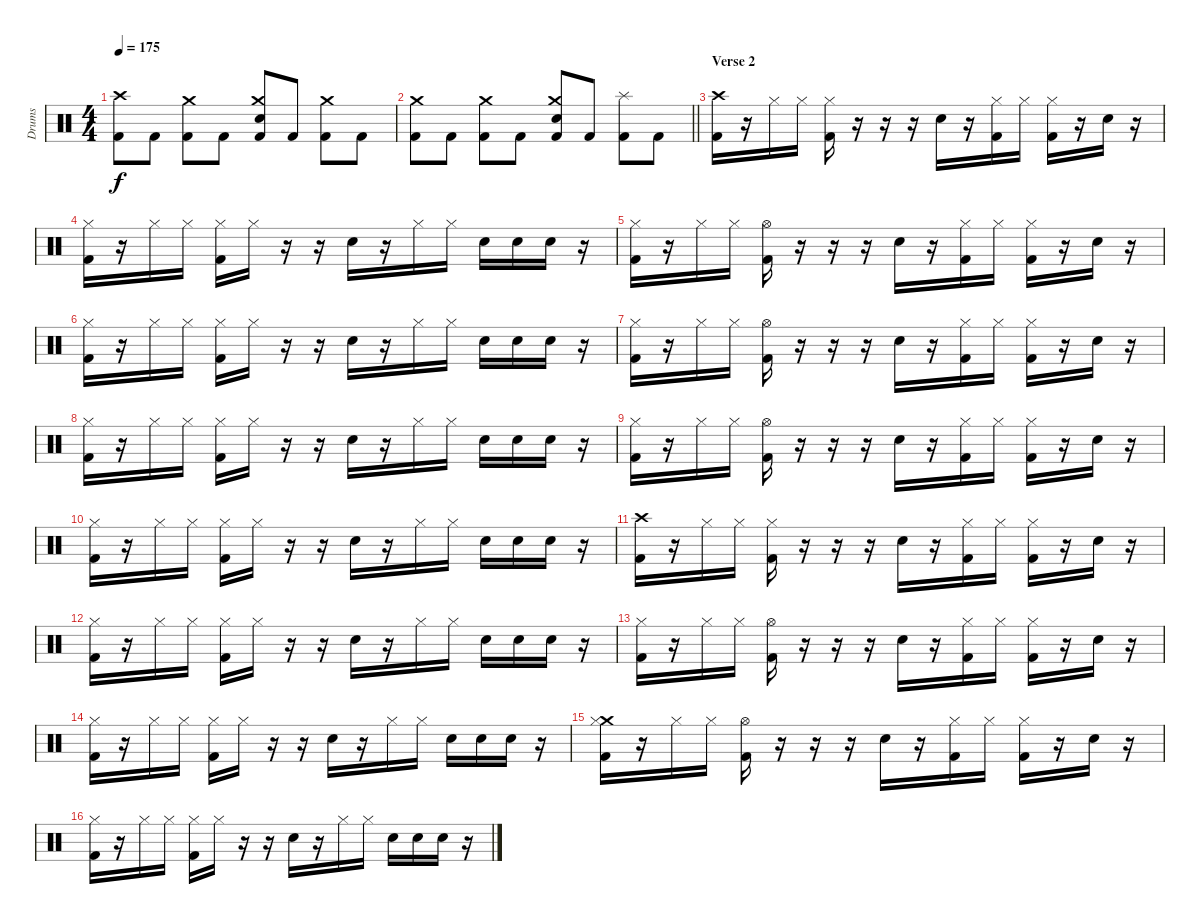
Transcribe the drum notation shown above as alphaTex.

\track ("Drums" "Drums") {instrument percussion}
\staff {score}
\articulation defaults
\ts (4 4)
\tempo 175
\clef neutral
\ks c
("Crash high (hit)" "Kick (hit) 2").8{dy f} "Kick (hit) 2".8 ("Crash medium (hit)" "Kick (hit) 2").8 "Kick (hit) 2".8 ("Crash medium (hit)" "Electric Snare (hit)" "Kick (hit) 2").8 "Kick (hit) 2".8 ("Crash medium (hit)" "Kick (hit) 2").8 "Kick (hit) 2".8 |
\barLineRight lightlight
("Crash medium (hit)" "Kick (hit) 2").8 "Kick (hit) 2".8 ("Crash medium (hit)" "Kick (hit) 2").8 "Kick (hit) 2".8 ("Crash medium (hit)" "Electric Snare (hit)" "Kick (hit) 2").8 "Kick (hit) 2".8 ("Splash (hit)" "Kick (hit) 2").8 "Kick (hit) 2".8 |
\section ("" "Verse 2")
("Crash high (hit)" "Kick (hit) 2").16 r.16 "Hi-Hat (closed)".16 "Hi-Hat (closed)".16 ("Hi-Hat (closed)" "Kick (hit) 2").16 r.16 r.16 r.16 "Electric Snare (hit)".16 r.16 ("Hi-Hat (closed)" "Kick (hit) 2").16 "Hi-Hat (closed)".16 ("Hi-Hat (closed)" "Kick (hit) 2").16 r.16 "Electric Snare (hit)".16 r.16 |
("Hi-Hat (closed)" "Kick (hit) 2").16 r.16 "Hi-Hat (closed)".16 "Hi-Hat (closed)".16 ("Hi-Hat (closed)" "Kick (hit) 2").16 "Hi-Hat (closed)".16 r.16 r.16 "Electric Snare (hit)".16 r.16 "Hi-Hat (closed)".16 "Hi-Hat (closed)".16 "Electric Snare (hit)".16 "Electric Snare (hit)".16 "Electric Snare (hit)".16 r.16 |
("Hi-Hat (closed)" "Kick (hit) 2").16 r.16 "Hi-Hat (closed)".16 "Hi-Hat (closed)".16 ("Hi-Hat (open)" "Kick (hit) 2").16 r.16 r.16 r.16 "Electric Snare (hit)".16 r.16 ("Hi-Hat (closed)" "Kick (hit) 2").16 "Hi-Hat (closed)".16 ("Hi-Hat (closed)" "Kick (hit) 2").16 r.16 "Electric Snare (hit)".16 r.16 |
("Hi-Hat (closed)" "Kick (hit) 2").16 r.16 "Hi-Hat (closed)".16 "Hi-Hat (closed)".16 ("Hi-Hat (closed)" "Kick (hit) 2").16 "Hi-Hat (closed)".16 r.16 r.16 "Electric Snare (hit)".16 r.16 "Hi-Hat (closed)".16 "Hi-Hat (closed)".16 "Electric Snare (hit)".16 "Electric Snare (hit)".16 "Electric Snare (hit)".16 r.16 |
("Hi-Hat (closed)" "Kick (hit) 2").16 r.16 "Hi-Hat (closed)".16 "Hi-Hat (closed)".16 ("Hi-Hat (open)" "Kick (hit) 2").16 r.16 r.16 r.16 "Electric Snare (hit)".16 r.16 ("Hi-Hat (closed)" "Kick (hit) 2").16 "Hi-Hat (closed)".16 ("Hi-Hat (closed)" "Kick (hit) 2").16 r.16 "Electric Snare (hit)".16 r.16 |
("Hi-Hat (closed)" "Kick (hit) 2").16 r.16 "Hi-Hat (closed)".16 "Hi-Hat (closed)".16 ("Hi-Hat (closed)" "Kick (hit) 2").16 "Hi-Hat (closed)".16 r.16 r.16 "Electric Snare (hit)".16 r.16 "Hi-Hat (closed)".16 "Hi-Hat (closed)".16 "Electric Snare (hit)".16 "Electric Snare (hit)".16 "Electric Snare (hit)".16 r.16 |
("Hi-Hat (closed)" "Kick (hit) 2").16 r.16 "Hi-Hat (closed)".16 "Hi-Hat (closed)".16 ("Hi-Hat (open)" "Kick (hit) 2").16 r.16 r.16 r.16 "Electric Snare (hit)".16 r.16 ("Hi-Hat (closed)" "Kick (hit) 2").16 "Hi-Hat (closed)".16 ("Hi-Hat (closed)" "Kick (hit) 2").16 r.16 "Electric Snare (hit)".16 r.16 |
("Hi-Hat (closed)" "Kick (hit) 2").16 r.16 "Hi-Hat (closed)".16 "Hi-Hat (closed)".16 ("Hi-Hat (closed)" "Kick (hit) 2").16 "Hi-Hat (closed)".16 r.16 r.16 "Electric Snare (hit)".16 r.16 "Hi-Hat (closed)".16 "Hi-Hat (closed)".16 "Electric Snare (hit)".16 "Electric Snare (hit)".16 "Electric Snare (hit)".16 r.16 |
("Crash high (hit)" "Kick (hit) 2").16 r.16 "Hi-Hat (closed)".16 "Hi-Hat (closed)".16 ("Hi-Hat (closed)" "Kick (hit) 2").16 r.16 r.16 r.16 "Electric Snare (hit)".16 r.16 ("Hi-Hat (closed)" "Kick (hit) 2").16 "Hi-Hat (closed)".16 ("Hi-Hat (closed)" "Kick (hit) 2").16 r.16 "Electric Snare (hit)".16 r.16 |
("Hi-Hat (closed)" "Kick (hit) 2").16 r.16 "Hi-Hat (closed)".16 "Hi-Hat (closed)".16 ("Hi-Hat (closed)" "Kick (hit) 2").16 "Hi-Hat (closed)".16 r.16 r.16 "Electric Snare (hit)".16 r.16 "Hi-Hat (closed)".16 "Hi-Hat (closed)".16 "Electric Snare (hit)".16 "Electric Snare (hit)".16 "Electric Snare (hit)".16 r.16 |
("Hi-Hat (closed)" "Kick (hit) 2").16 r.16 "Hi-Hat (closed)".16 "Hi-Hat (closed)".16 ("Hi-Hat (open)" "Kick (hit) 2").16 r.16 r.16 r.16 "Electric Snare (hit)".16 r.16 ("Hi-Hat (closed)" "Kick (hit) 2").16 "Hi-Hat (closed)".16 ("Hi-Hat (closed)" "Kick (hit) 2").16 r.16 "Electric Snare (hit)".16 r.16 |
("Hi-Hat (closed)" "Kick (hit) 2").16 r.16 "Hi-Hat (closed)".16 "Hi-Hat (closed)".16 ("Hi-Hat (closed)" "Kick (hit) 2").16 "Hi-Hat (closed)".16 r.16 r.16 "Electric Snare (hit)".16 r.16 "Hi-Hat (closed)".16 "Hi-Hat (closed)".16 "Electric Snare (hit)".16 "Electric Snare (hit)".16 "Electric Snare (hit)".16 r.16 |
("Crash medium (hit)" "Hi-Hat (closed)" "Kick (hit) 2").16 r.16 "Hi-Hat (closed)".16 "Hi-Hat (closed)".16 ("Hi-Hat (open)" "Kick (hit) 2").16 r.16 r.16 r.16 "Electric Snare (hit)".16 r.16 ("Hi-Hat (closed)" "Kick (hit) 2").16 "Hi-Hat (closed)".16 ("Hi-Hat (closed)" "Kick (hit) 2").16 r.16 "Electric Snare (hit)".16 r.16 |
("Hi-Hat (closed)" "Kick (hit) 2").16 r.16 "Hi-Hat (closed)".16 "Hi-Hat (closed)".16 ("Hi-Hat (closed)" "Kick (hit) 2").16 "Hi-Hat (closed)".16 r.16 r.16 "Electric Snare (hit)".16 r.16 "Hi-Hat (closed)".16 "Hi-Hat (closed)".16 "Electric Snare (hit)".16 "Electric Snare (hit)".16 "Electric Snare (hit)".16 r.16
